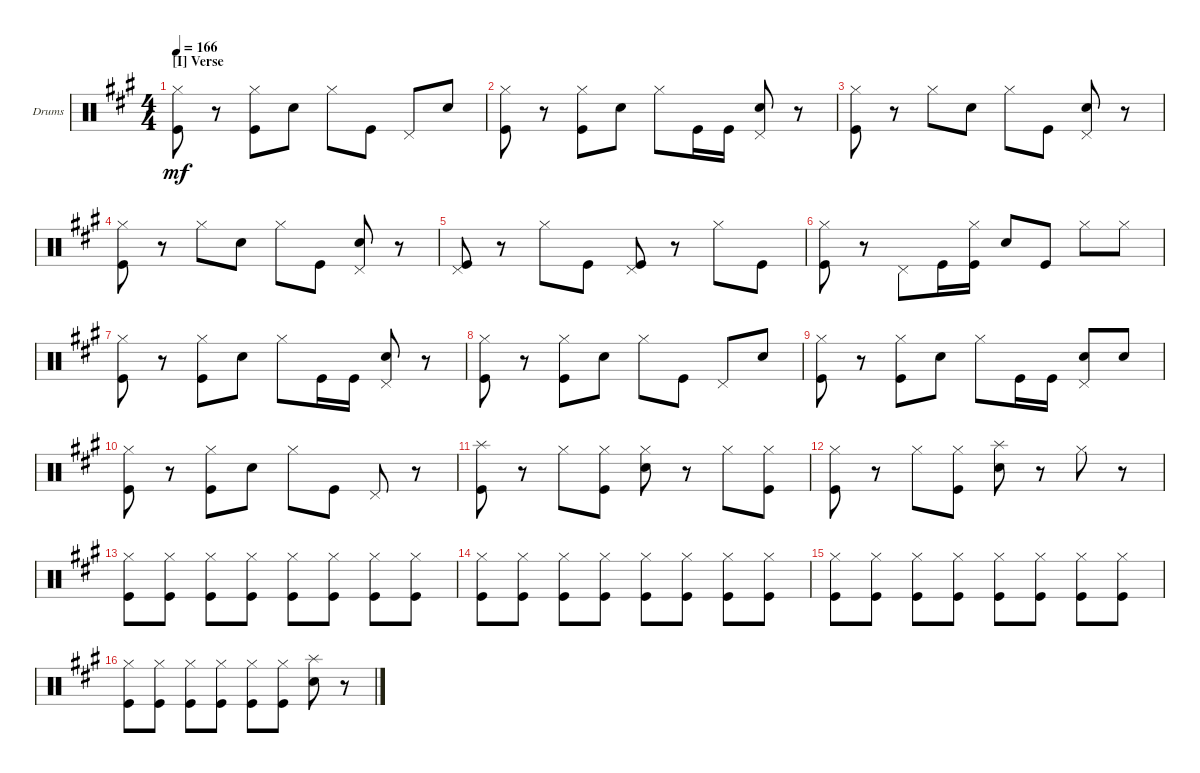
\defaultSystemsLayout 4
\bracketExtendMode groupsimilarinstruments
\firstSystemTrackNameOrientation horizontal
\otherSystemsTrackNameOrientation horizontal
\track ("Drumkit" "Drums") {instrument percussion}
\staff {score}
\articulation defaults
\ts (4 4)
\section ("I" "Verse")
\tempo 166
\clef neutral
\ks a
("Kick (hit)" "Hi-Hat (closed)").8{dy mf} r.8 ("Hi-Hat (closed)" "Kick (hit)").8 "Snare (hit) 2".8 "Hi-Hat (closed)".8 "Kick (hit)".8 "Pedal Hi-Hat (hit)".8 "Snare (hit) 2".8 |
("Kick (hit)" "Hi-Hat (closed)").8 r.8 ("Hi-Hat (closed)" "Kick (hit)").8 "Snare (hit) 2".8 "Hi-Hat (closed)".8 "Kick (hit)".16 "Kick (hit)".16 ("Pedal Hi-Hat (hit)" "Snare (hit) 2").8 r.8 |
("Kick (hit)" "Hi-Hat (closed)").8 r.8 "Hi-Hat (closed)".8 "Snare (hit) 2".8 "Hi-Hat (closed)".8 "Kick (hit)".8 ("Pedal Hi-Hat (hit)" "Snare (hit) 2").8 r.8 |
("Kick (hit)" "Hi-Hat (closed)").8 r.8 "Hi-Hat (closed)".8 "Snare (hit) 2".8 "Hi-Hat (closed)".8 "Kick (hit)".8 ("Pedal Hi-Hat (hit)" "Snare (hit) 2").8 r.8 |
("Kick (hit)" "Pedal Hi-Hat (hit)").8 r.8 "Hi-Hat (closed)".8 "Kick (hit)".8 ("Kick (hit)" "Pedal Hi-Hat (hit)").8 r.8 "Hi-Hat (closed)".8 "Kick (hit)".8 |
("Kick (hit)" "Hi-Hat (closed)").8 r.8 "Pedal Hi-Hat (hit)".8 "Kick (hit)".16 ("Kick (hit)" "Hi-Hat (closed)").16 "Snare (hit) 2".8 "Kick (hit)".8 "Hi-Hat (closed)".8 "Hi-Hat (closed)".8 |
("Kick (hit)" "Hi-Hat (closed)").8 r.8 ("Hi-Hat (closed)" "Kick (hit)").8 "Snare (hit) 2".8 "Hi-Hat (closed)".8 "Kick (hit)".16 "Kick (hit)".16 ("Pedal Hi-Hat (hit)" "Snare (hit) 2").8 r.8 |
("Kick (hit)" "Hi-Hat (closed)").8 r.8 ("Hi-Hat (closed)" "Kick (hit)").8 "Snare (hit) 2".8 "Hi-Hat (closed)".8 "Kick (hit)".8 "Pedal Hi-Hat (hit)".8 "Snare (hit) 2".8 |
("Kick (hit)" "Hi-Hat (closed)").8 r.8 ("Hi-Hat (closed)" "Kick (hit)").8 "Snare (hit) 2".8 "Hi-Hat (closed)".8 "Kick (hit)".16 "Kick (hit)".16 ("Pedal Hi-Hat (hit)" "Snare (hit) 2").8 "Snare (hit) 2".8 |
("Kick (hit)" "Hi-Hat (closed)").8 r.8 ("Hi-Hat (closed)" "Kick (hit)").8 "Snare (hit) 2".8 "Hi-Hat (closed)".8 "Kick (hit)".8 "Pedal Hi-Hat (hit)".8 r.8 |
("Kick (hit)" "Splash (hit)").8 r.8 "Hi-Hat (closed)".8 ("Kick (hit)" "Hi-Hat (closed)").8 ("Snare (hit) 2" "Hi-Hat (closed)").8 r.8 "Hi-Hat (closed)".8 ("Kick (hit)" "Hi-Hat (closed)").8 |
("Kick (hit)" "Hi-Hat (closed)").8 r.8 "Hi-Hat (closed)".8 ("Kick (hit)" "Hi-Hat (closed)").8 ("Snare (hit) 2" "Splash (hit)").8 r.8 "Hi-Hat (closed)".8 r.8 |
("Hi-Hat (closed)" "Kick (hit)").8 ("Hi-Hat (closed)" "Kick (hit)").8 ("Hi-Hat (closed)" "Kick (hit)").8 ("Hi-Hat (closed)" "Kick (hit)").8 ("Hi-Hat (closed)" "Kick (hit)").8 ("Hi-Hat (closed)" "Kick (hit)").8 ("Hi-Hat (closed)" "Kick (hit)").8 ("Hi-Hat (closed)" "Kick (hit)").8 |
("Hi-Hat (closed)" "Kick (hit)").8 ("Hi-Hat (closed)" "Kick (hit)").8 ("Hi-Hat (closed)" "Kick (hit)").8 ("Hi-Hat (closed)" "Kick (hit)").8 ("Hi-Hat (closed)" "Kick (hit)").8 ("Hi-Hat (closed)" "Kick (hit)").8 ("Hi-Hat (closed)" "Kick (hit)").8 ("Hi-Hat (closed)" "Kick (hit)").8 |
("Hi-Hat (closed)" "Kick (hit)").8 ("Hi-Hat (closed)" "Kick (hit)").8 ("Hi-Hat (closed)" "Kick (hit)").8 ("Hi-Hat (closed)" "Kick (hit)").8 ("Hi-Hat (closed)" "Kick (hit)").8 ("Hi-Hat (closed)" "Kick (hit)").8 ("Hi-Hat (closed)" "Kick (hit)").8 ("Hi-Hat (closed)" "Kick (hit)").8 |
("Hi-Hat (closed)" "Kick (hit)").8 ("Hi-Hat (closed)" "Kick (hit)").8 ("Hi-Hat (closed)" "Kick (hit)").8 ("Hi-Hat (closed)" "Kick (hit)").8 ("Hi-Hat (closed)" "Kick (hit)").8 ("Kick (hit)" "Hi-Hat (closed)").8 ("Snare (hit) 2" "Splash (hit)").8 r.8
